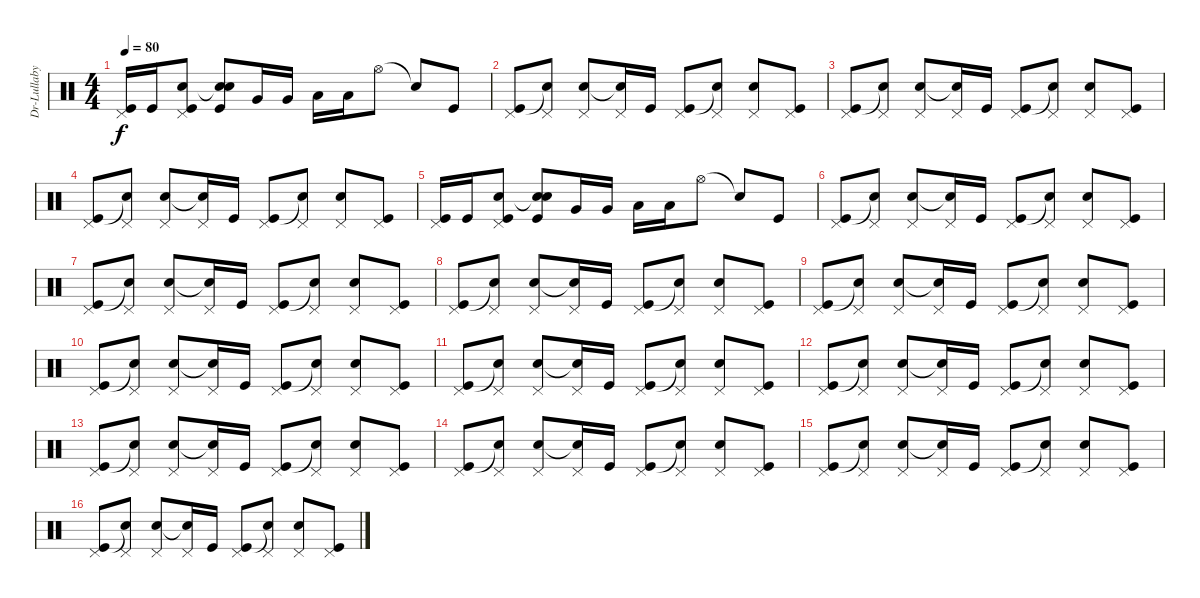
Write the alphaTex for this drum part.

\track ("Dr-Lullaby" "Dr-Lullaby") {instrument percussion}
\staff {score}
\articulation defaults
\ts (4 4)
\tempo 80
\clef neutral
\ks c
("Kick (hit)" "Pedal Hi-Hat (hit)").16{dy f} "Kick (hit)".16 ("Kick (hit)" "Snare (hit) 2" "Pedal Hi-Hat (hit)").8 ("Kick (hit)" "Snare (hit)"{t} "Snare (hit) 2").8 "Very Low Tom (hit)".16 "Very Low Tom (hit)".16 "Low Tom (hit)".16 "Low Tom (hit)".16 "Hi-Hat (open)".8 "Snare (hit)"{t}.8 "Kick (hit)".8 |
("Kick (hit)" "Pedal Hi-Hat (hit)").8 ("Snare (hit)"{t} "Pedal Hi-Hat (hit)").8 ("Snare (hit) 2" "Pedal Hi-Hat (hit)").8 ("Snare (hit)"{t} "Pedal Hi-Hat (hit)").16 "Kick (hit)".16 ("Kick (hit)" "Pedal Hi-Hat (hit)").8 ("Snare (hit)"{t} "Pedal Hi-Hat (hit)").8 ("Snare (hit) 2" "Pedal Hi-Hat (hit)").8 ("Kick (hit)" "Pedal Hi-Hat (hit)").8 |
("Kick (hit)" "Pedal Hi-Hat (hit)").8 ("Snare (hit)"{t} "Pedal Hi-Hat (hit)").8 ("Snare (hit) 2" "Pedal Hi-Hat (hit)").8 ("Snare (hit)"{t} "Pedal Hi-Hat (hit)").16 "Kick (hit)".16 ("Kick (hit)" "Pedal Hi-Hat (hit)").8 ("Snare (hit)"{t} "Pedal Hi-Hat (hit)").8 ("Snare (hit) 2" "Pedal Hi-Hat (hit)").8 ("Kick (hit)" "Pedal Hi-Hat (hit)").8 |
("Kick (hit)" "Pedal Hi-Hat (hit)").8 ("Snare (hit)"{t} "Pedal Hi-Hat (hit)").8 ("Snare (hit) 2" "Pedal Hi-Hat (hit)").8 ("Snare (hit)"{t} "Pedal Hi-Hat (hit)").16 "Kick (hit)".16 ("Kick (hit)" "Pedal Hi-Hat (hit)").8 ("Snare (hit)"{t} "Pedal Hi-Hat (hit)").8 ("Snare (hit) 2" "Pedal Hi-Hat (hit)").8 ("Kick (hit)" "Pedal Hi-Hat (hit)").8 |
("Kick (hit)" "Pedal Hi-Hat (hit)").16 "Kick (hit)".16 ("Kick (hit)" "Snare (hit) 2" "Pedal Hi-Hat (hit)").8 ("Kick (hit)" "Snare (hit)"{t} "Snare (hit) 2").8 "Very Low Tom (hit)".16 "Very Low Tom (hit)".16 "Low Tom (hit)".16 "Low Tom (hit)".16 "Hi-Hat (open)".8 "Snare (hit)"{t}.8 "Kick (hit)".8 |
("Kick (hit)" "Pedal Hi-Hat (hit)").8 ("Snare (hit)"{t} "Pedal Hi-Hat (hit)").8 ("Snare (hit) 2" "Pedal Hi-Hat (hit)").8 ("Snare (hit)"{t} "Pedal Hi-Hat (hit)").16 "Kick (hit)".16 ("Kick (hit)" "Pedal Hi-Hat (hit)").8 ("Snare (hit)"{t} "Pedal Hi-Hat (hit)").8 ("Snare (hit) 2" "Pedal Hi-Hat (hit)").8 ("Kick (hit)" "Pedal Hi-Hat (hit)").8 |
("Kick (hit)" "Pedal Hi-Hat (hit)").8 ("Snare (hit)"{t} "Pedal Hi-Hat (hit)").8 ("Snare (hit) 2" "Pedal Hi-Hat (hit)").8 ("Snare (hit)"{t} "Pedal Hi-Hat (hit)").16 "Kick (hit)".16 ("Kick (hit)" "Pedal Hi-Hat (hit)").8 ("Snare (hit)"{t} "Pedal Hi-Hat (hit)").8 ("Snare (hit) 2" "Pedal Hi-Hat (hit)").8 ("Kick (hit)" "Pedal Hi-Hat (hit)").8 |
("Kick (hit)" "Pedal Hi-Hat (hit)").8 ("Snare (hit)"{t} "Pedal Hi-Hat (hit)").8 ("Snare (hit) 2" "Pedal Hi-Hat (hit)").8 ("Snare (hit)"{t} "Pedal Hi-Hat (hit)").16 "Kick (hit)".16 ("Kick (hit)" "Pedal Hi-Hat (hit)").8 ("Snare (hit)"{t} "Pedal Hi-Hat (hit)").8 ("Snare (hit) 2" "Pedal Hi-Hat (hit)").8 ("Kick (hit)" "Pedal Hi-Hat (hit)").8 |
("Kick (hit)" "Pedal Hi-Hat (hit)").8 ("Snare (hit)"{t} "Pedal Hi-Hat (hit)").8 ("Snare (hit) 2" "Pedal Hi-Hat (hit)").8 ("Snare (hit)"{t} "Pedal Hi-Hat (hit)").16 "Kick (hit)".16 ("Kick (hit)" "Pedal Hi-Hat (hit)").8 ("Snare (hit)"{t} "Pedal Hi-Hat (hit)").8 ("Snare (hit) 2" "Pedal Hi-Hat (hit)").8 ("Kick (hit)" "Pedal Hi-Hat (hit)").8 |
("Kick (hit)" "Pedal Hi-Hat (hit)").8 ("Snare (hit)"{t} "Pedal Hi-Hat (hit)").8 ("Snare (hit) 2" "Pedal Hi-Hat (hit)").8 ("Snare (hit)"{t} "Pedal Hi-Hat (hit)").16 "Kick (hit)".16 ("Kick (hit)" "Pedal Hi-Hat (hit)").8 ("Snare (hit)"{t} "Pedal Hi-Hat (hit)").8 ("Snare (hit) 2" "Pedal Hi-Hat (hit)").8 ("Kick (hit)" "Pedal Hi-Hat (hit)").8 |
("Kick (hit)" "Pedal Hi-Hat (hit)").8 ("Snare (hit)"{t} "Pedal Hi-Hat (hit)").8 ("Snare (hit) 2" "Pedal Hi-Hat (hit)").8 ("Snare (hit)"{t} "Pedal Hi-Hat (hit)").16 "Kick (hit)".16 ("Kick (hit)" "Pedal Hi-Hat (hit)").8 ("Snare (hit)"{t} "Pedal Hi-Hat (hit)").8 ("Snare (hit) 2" "Pedal Hi-Hat (hit)").8 ("Kick (hit)" "Pedal Hi-Hat (hit)").8 |
("Kick (hit)" "Pedal Hi-Hat (hit)").8 ("Snare (hit)"{t} "Pedal Hi-Hat (hit)").8 ("Snare (hit) 2" "Pedal Hi-Hat (hit)").8 ("Snare (hit)"{t} "Pedal Hi-Hat (hit)").16 "Kick (hit)".16 ("Kick (hit)" "Pedal Hi-Hat (hit)").8 ("Snare (hit)"{t} "Pedal Hi-Hat (hit)").8 ("Snare (hit) 2" "Pedal Hi-Hat (hit)").8 ("Kick (hit)" "Pedal Hi-Hat (hit)").8 |
("Kick (hit)" "Pedal Hi-Hat (hit)").8 ("Snare (hit)"{t} "Pedal Hi-Hat (hit)").8 ("Snare (hit) 2" "Pedal Hi-Hat (hit)").8 ("Snare (hit)"{t} "Pedal Hi-Hat (hit)").16 "Kick (hit)".16 ("Kick (hit)" "Pedal Hi-Hat (hit)").8 ("Snare (hit)"{t} "Pedal Hi-Hat (hit)").8 ("Snare (hit) 2" "Pedal Hi-Hat (hit)").8 ("Kick (hit)" "Pedal Hi-Hat (hit)").8 |
("Kick (hit)" "Pedal Hi-Hat (hit)").8 ("Snare (hit)"{t} "Pedal Hi-Hat (hit)").8 ("Snare (hit) 2" "Pedal Hi-Hat (hit)").8 ("Snare (hit)"{t} "Pedal Hi-Hat (hit)").16 "Kick (hit)".16 ("Kick (hit)" "Pedal Hi-Hat (hit)").8 ("Snare (hit)"{t} "Pedal Hi-Hat (hit)").8 ("Snare (hit) 2" "Pedal Hi-Hat (hit)").8 ("Kick (hit)" "Pedal Hi-Hat (hit)").8 |
("Kick (hit)" "Pedal Hi-Hat (hit)").8 ("Snare (hit)"{t} "Pedal Hi-Hat (hit)").8 ("Snare (hit) 2" "Pedal Hi-Hat (hit)").8 ("Snare (hit)"{t} "Pedal Hi-Hat (hit)").16 "Kick (hit)".16 ("Kick (hit)" "Pedal Hi-Hat (hit)").8 ("Snare (hit)"{t} "Pedal Hi-Hat (hit)").8 ("Snare (hit) 2" "Pedal Hi-Hat (hit)").8 ("Kick (hit)" "Pedal Hi-Hat (hit)").8 |
("Kick (hit)" "Pedal Hi-Hat (hit)").8 ("Snare (hit)"{t} "Pedal Hi-Hat (hit)").8 ("Snare (hit) 2" "Pedal Hi-Hat (hit)").8 ("Snare (hit)"{t} "Pedal Hi-Hat (hit)").16 "Kick (hit)".16 ("Kick (hit)" "Pedal Hi-Hat (hit)").8 ("Snare (hit)"{t} "Pedal Hi-Hat (hit)").8 ("Snare (hit) 2" "Pedal Hi-Hat (hit)").8 ("Kick (hit)" "Pedal Hi-Hat (hit)").8
